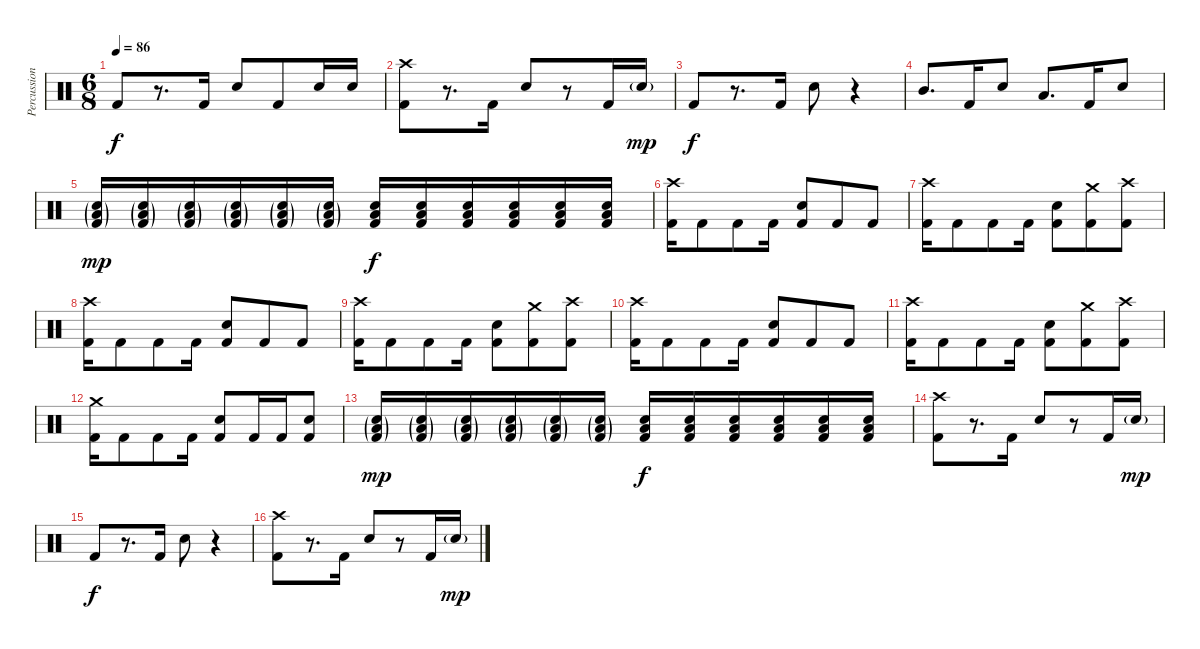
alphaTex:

\track ("Percussion" "Percussion") {instrument percussion}
\staff {score}
\articulation defaults
\ts (6 8)
\tempo 86
\clef neutral
\ks c "Kick (hit) 2".8{dy f}
r.8{d} "Kick (hit) 2".16 "Snare (hit) 2".8 "Kick (hit) 2".8 "Snare (hit) 2".16 "Snare (hit) 2".16 |
("Crash high (hit)" "Kick (hit) 2").8 r.8{d} "Kick (hit) 2".16 "Snare (hit) 2".8 r.8 "Kick (hit) 2".16 "Snare (hit) 2"{g}.16{dy mp} |
"Kick (hit) 2".8{dy f} r.8{d} "Kick (hit) 2".16 "Snare (hit) 2".8 r.4 |
"Mid Tom (hit)".8{d} "Kick (hit) 2".16 "Snare (hit) 2".8 "Low Tom (hit)".8{d} "Kick (hit) 2".16 "Snare (hit) 2".8 |
("Low Floor Tom (hit)"{g} "Snare (hit) 2"{g} "Kick (hit) 2"{g}).16{dy mp} ("Low Floor Tom (hit)"{g} "Snare (hit) 2"{g} "Kick (hit) 2"{g}).16 ("Low Floor Tom (hit)"{g} "Snare (hit) 2"{g} "Kick (hit) 2"{g}).16 ("Low Floor Tom (hit)"{g} "Snare (hit) 2"{g} "Kick (hit) 2"{g}).16 ("Low Floor Tom (hit)"{g} "Snare (hit) 2"{g} "Kick (hit) 2"{g}).16 ("Low Floor Tom (hit)"{g} "Snare (hit) 2"{g} "Kick (hit) 2"{g}).16 ("Low Floor Tom (hit)" "Snare (hit) 2" "Kick (hit) 2").16{dy f} ("Low Floor Tom (hit)" "Snare (hit) 2" "Kick (hit) 2").16 ("Low Floor Tom (hit)" "Snare (hit) 2" "Kick (hit) 2").16 ("Low Floor Tom (hit)" "Snare (hit) 2" "Kick (hit) 2").16 ("Low Floor Tom (hit)" "Snare (hit) 2" "Kick (hit) 2").16 ("Low Floor Tom (hit)" "Snare (hit) 2" "Kick (hit) 2").16 |
("Crash high (hit)" "Kick (hit) 2").16 "Kick (hit) 2".8 "Kick (hit) 2".8 "Kick (hit) 2".16 ("Snare (hit) 2" "Kick (hit) 2").8 "Kick (hit) 2".8 "Kick (hit) 2".8 |
("Crash high (hit)" "Kick (hit) 2").16 "Kick (hit) 2".8 "Kick (hit) 2".8 "Kick (hit) 2".16 ("Snare (hit) 2" "Kick (hit) 2").8 ("Crash medium (hit)" "Kick (hit) 2").8 ("Crash high (hit)" "Kick (hit) 2").8 |
("Crash high (hit)" "Kick (hit) 2").16 "Kick (hit) 2".8 "Kick (hit) 2".8 "Kick (hit) 2".16 ("Snare (hit) 2" "Kick (hit) 2").8 "Kick (hit) 2".8 "Kick (hit) 2".8 |
("Crash high (hit)" "Kick (hit) 2").16 "Kick (hit) 2".8 "Kick (hit) 2".8 "Kick (hit) 2".16 ("Snare (hit) 2" "Kick (hit) 2").8 ("Crash medium (hit)" "Kick (hit) 2").8 ("Crash high (hit)" "Kick (hit) 2").8 |
("Crash high (hit)" "Kick (hit) 2").16 "Kick (hit) 2".8 "Kick (hit) 2".8 "Kick (hit) 2".16 ("Snare (hit) 2" "Kick (hit) 2").8 "Kick (hit) 2".8 "Kick (hit) 2".8 |
("Crash high (hit)" "Kick (hit) 2").16 "Kick (hit) 2".8 "Kick (hit) 2".8 "Kick (hit) 2".16 ("Snare (hit) 2" "Kick (hit) 2").8 ("Crash medium (hit)" "Kick (hit) 2").8 ("Crash high (hit)" "Kick (hit) 2").8 |
("Crash medium (hit)" "Kick (hit) 2").16 "Kick (hit) 2".8 "Kick (hit) 2".8 "Kick (hit) 2".16 ("Snare (hit) 2" "Kick (hit) 2").8 "Kick (hit) 2".16 "Kick (hit) 2".16 ("Snare (hit) 2" "Kick (hit) 2").8 |
("Low Floor Tom (hit)"{g} "Snare (hit) 2"{g} "Kick (hit) 2"{g}).16{dy mp} ("Low Floor Tom (hit)"{g} "Snare (hit) 2"{g} "Kick (hit) 2"{g}).16 ("Low Floor Tom (hit)"{g} "Snare (hit) 2"{g} "Kick (hit) 2"{g}).16 ("Low Floor Tom (hit)"{g} "Snare (hit) 2"{g} "Kick (hit) 2"{g}).16 ("Low Floor Tom (hit)"{g} "Snare (hit) 2"{g} "Kick (hit) 2"{g}).16 ("Low Floor Tom (hit)"{g} "Snare (hit) 2"{g} "Kick (hit) 2"{g}).16 ("Low Floor Tom (hit)" "Snare (hit) 2" "Kick (hit) 2").16{dy f} ("Low Floor Tom (hit)" "Snare (hit) 2" "Kick (hit) 2").16 ("Low Floor Tom (hit)" "Snare (hit) 2" "Kick (hit) 2").16 ("Low Floor Tom (hit)" "Snare (hit) 2" "Kick (hit) 2").16 ("Low Floor Tom (hit)" "Snare (hit) 2" "Kick (hit) 2").16 ("Low Floor Tom (hit)" "Snare (hit) 2" "Kick (hit) 2").16 |
("Crash high (hit)" "Kick (hit) 2").8 r.8{d} "Kick (hit) 2".16 "Snare (hit) 2".8 r.8 "Kick (hit) 2".16 "Snare (hit) 2"{g}.16{dy mp} |
"Kick (hit) 2".8{dy f} r.8{d} "Kick (hit) 2".16 "Snare (hit) 2".8 r.4 |
("Crash high (hit)" "Kick (hit) 2").8 r.8{d} "Kick (hit) 2".16 "Snare (hit) 2".8 r.8 "Kick (hit) 2".16 "Snare (hit) 2"{g}.16{dy mp}
